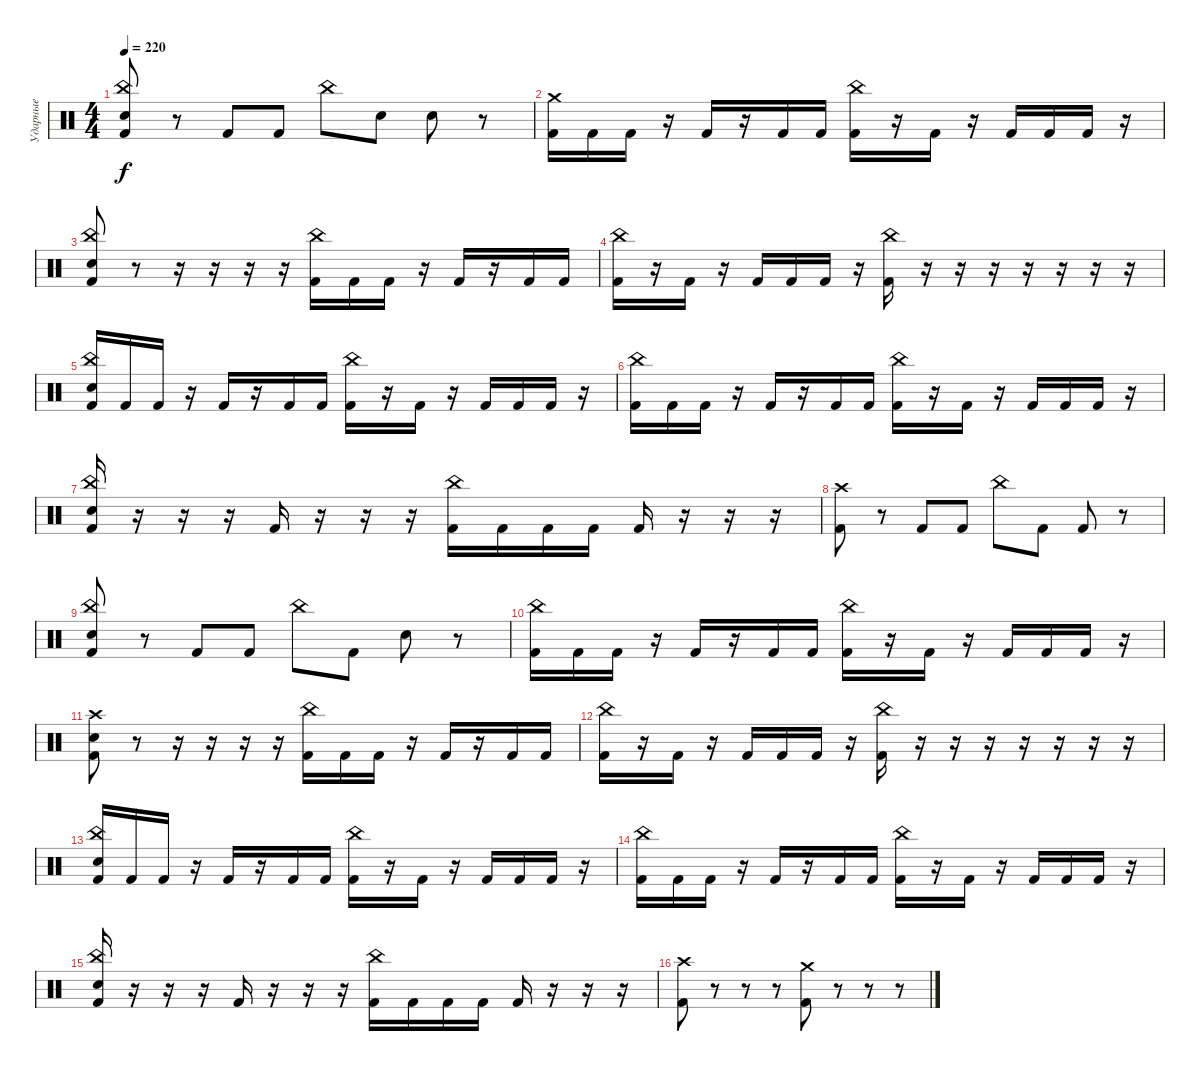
\track ("Ударные" "Ударные") {instrument percussion}
\staff {score}
\articulation defaults
\ts (4 4)
\tempo 220
\clef neutral
\ks c
("Kick (hit) 2" "China (hit)" "Electric Snare (hit)").8{dy f} r.8 "Kick (hit) 2".8 "Kick (hit) 2".8 "China (hit)".8 "Electric Snare (hit)".8 "Electric Snare (hit)".8 r.8 |
("Kick (hit) 2" "Crash medium (hit)").16 "Kick (hit) 2".16 "Kick (hit) 2".16 r.16 "Kick (hit) 2".16 r.16 "Kick (hit) 2".16 "Kick (hit) 2".16 ("Kick (hit) 2" "China (hit)").16 r.16 "Kick (hit) 2".16 r.16 "Kick (hit) 2".16 "Kick (hit) 2".16 "Kick (hit) 2".16 r.16 |
("Kick (hit) 2" "Electric Snare (hit)" "China (hit)").8 r.8 r.16 r.16 r.16 r.16 ("Kick (hit) 2" "China (hit)").16 "Kick (hit) 2".16 "Kick (hit) 2".16 r.16 "Kick (hit) 2".16 r.16 "Kick (hit) 2".16 "Kick (hit) 2".16 |
("Kick (hit) 2" "China (hit)").16 r.16 "Kick (hit) 2".16 r.16 "Kick (hit) 2".16 "Kick (hit) 2".16 "Kick (hit) 2".16 r.16 ("Kick (hit) 2" "China (hit)").16 r.16 r.16 r.16 r.16 r.16 r.16 r.16 |
("Kick (hit) 2" "Electric Snare (hit)" "China (hit)").16 "Kick (hit) 2".16 "Kick (hit) 2".16 r.16 "Kick (hit) 2".16 r.16 "Kick (hit) 2".16 "Kick (hit) 2".16 ("Kick (hit) 2" "China (hit)").16 r.16 "Kick (hit) 2".16 r.16 "Kick (hit) 2".16 "Kick (hit) 2".16 "Kick (hit) 2".16 r.16 |
("Kick (hit) 2" "China (hit)").16 "Kick (hit) 2".16 "Kick (hit) 2".16 r.16 "Kick (hit) 2".16 r.16 "Kick (hit) 2".16 "Kick (hit) 2".16 ("Kick (hit) 2" "China (hit)").16 r.16 "Kick (hit) 2".16 r.16 "Kick (hit) 2".16 "Kick (hit) 2".16 "Kick (hit) 2".16 r.16 |
("Kick (hit) 2" "Electric Snare (hit)" "China (hit)").16 r.16 r.16 r.16 "Kick (hit) 2".16 r.16 r.16 r.16 ("Kick (hit) 2" "China (hit)").16 "Kick (hit) 2".16 "Kick (hit) 2".16 "Kick (hit) 2".16 "Kick (hit) 2".16 r.16 r.16 r.16 |
("Kick (hit) 2" "Crash high (hit)").8 r.8 "Kick (hit) 2".8 "Kick (hit) 2".8 "China (hit)".8 "Kick (hit) 2".8 "Kick (hit) 2".8 r.8 |
("Kick (hit) 2" "China (hit)" "Electric Snare (hit)").8 r.8 "Kick (hit) 2".8 "Kick (hit) 2".8 "China (hit)".8 "Kick (hit) 2".8 "Electric Snare (hit)".8 r.8 |
("Kick (hit) 2" "China (hit)").16 "Kick (hit) 2".16 "Kick (hit) 2".16 r.16 "Kick (hit) 2".16 r.16 "Kick (hit) 2".16 "Kick (hit) 2".16 ("Kick (hit) 2" "China (hit)").16 r.16 "Kick (hit) 2".16 r.16 "Kick (hit) 2".16 "Kick (hit) 2".16 "Kick (hit) 2".16 r.16 |
("Kick (hit) 2" "Electric Snare (hit)" "Crash high (hit)").8 r.8 r.16 r.16 r.16 r.16 ("Kick (hit) 2" "China (hit)").16 "Kick (hit) 2".16 "Kick (hit) 2".16 r.16 "Kick (hit) 2".16 r.16 "Kick (hit) 2".16 "Kick (hit) 2".16 |
("Kick (hit) 2" "China (hit)").16 r.16 "Kick (hit) 2".16 r.16 "Kick (hit) 2".16 "Kick (hit) 2".16 "Kick (hit) 2".16 r.16 ("Kick (hit) 2" "China (hit)").16 r.16 r.16 r.16 r.16 r.16 r.16 r.16 |
("Kick (hit) 2" "Electric Snare (hit)" "China (hit)").16 "Kick (hit) 2".16 "Kick (hit) 2".16 r.16 "Kick (hit) 2".16 r.16 "Kick (hit) 2".16 "Kick (hit) 2".16 ("Kick (hit) 2" "China (hit)").16 r.16 "Kick (hit) 2".16 r.16 "Kick (hit) 2".16 "Kick (hit) 2".16 "Kick (hit) 2".16 r.16 |
("Kick (hit) 2" "China (hit)").16 "Kick (hit) 2".16 "Kick (hit) 2".16 r.16 "Kick (hit) 2".16 r.16 "Kick (hit) 2".16 "Kick (hit) 2".16 ("Kick (hit) 2" "China (hit)").16 r.16 "Kick (hit) 2".16 r.16 "Kick (hit) 2".16 "Kick (hit) 2".16 "Kick (hit) 2".16 r.16 |
("Kick (hit) 2" "Electric Snare (hit)" "China (hit)").16 r.16 r.16 r.16 "Kick (hit) 2".16 r.16 r.16 r.16 ("Kick (hit) 2" "China (hit)").16 "Kick (hit) 2".16 "Kick (hit) 2".16 "Kick (hit) 2".16 "Kick (hit) 2".16 r.16 r.16 r.16 |
("Kick (hit) 2" "Crash high (hit)").8 r.8 r.8 r.8 ("Kick (hit) 2" "Crash medium (hit)").8 r.8 r.8 r.8
